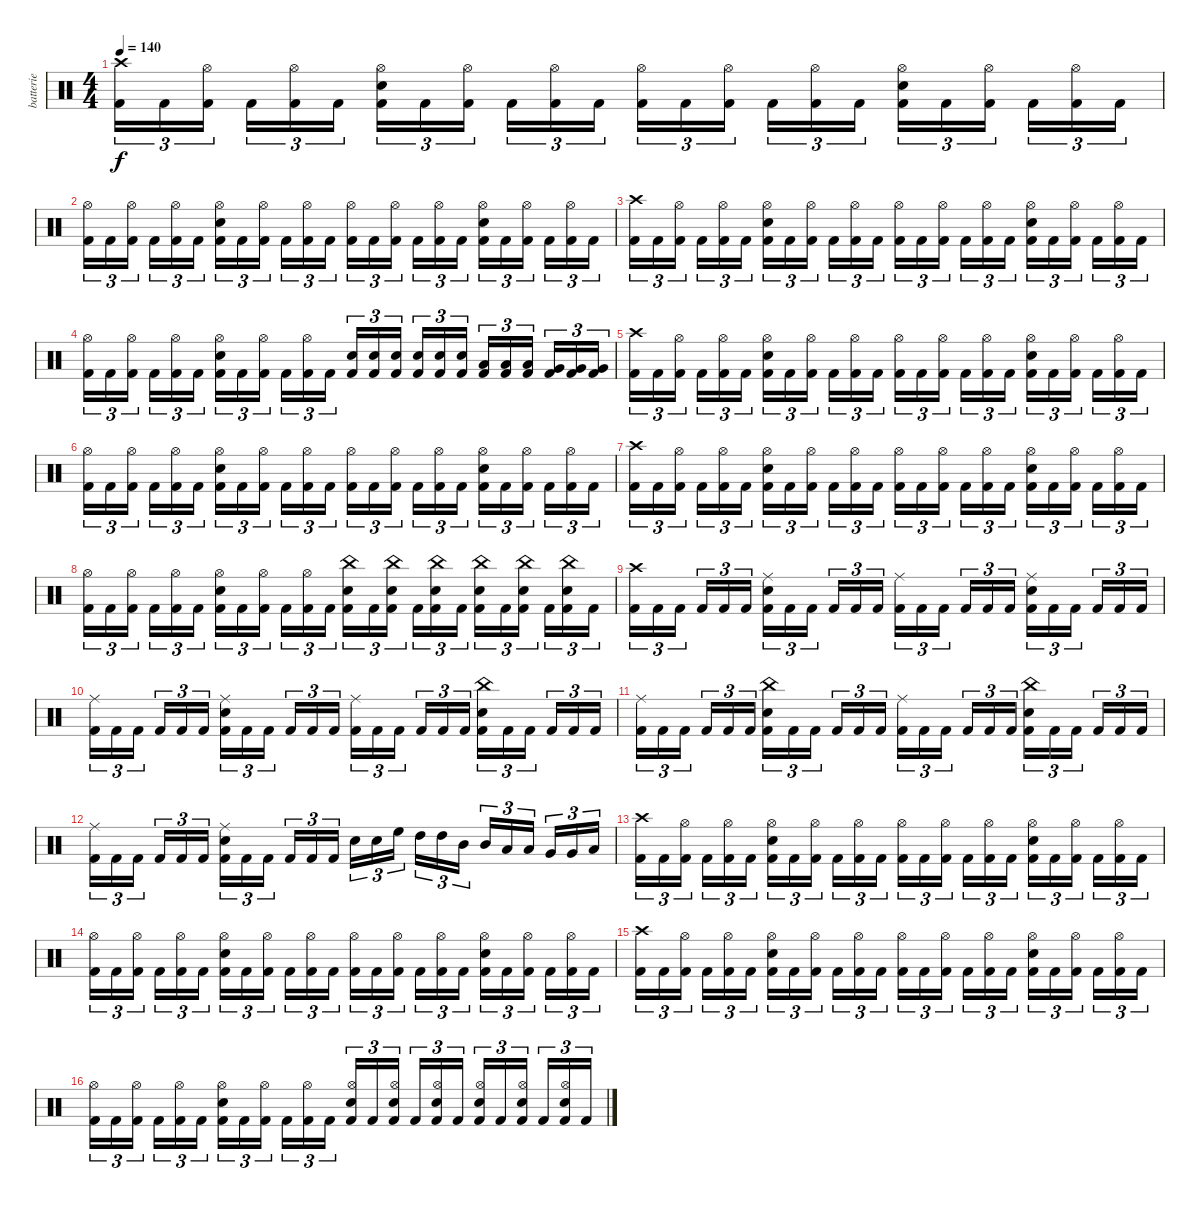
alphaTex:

\track ("batterie" "batterie") {instrument percussion}
\staff {score}
\articulation defaults
\ts (4 4)
\tempo 140
\clef neutral
\ks c
("Crash high (hit)" "Kick (hit) 2").16{tu (3 2) dy f} "Kick (hit) 2".16{tu (3 2)} ("Hi-Hat (open)" "Kick (hit) 2").16{tu (3 2)} "Kick (hit) 2".16{tu (3 2)} ("Hi-Hat (open)" "Kick (hit) 2").16{tu (3 2)} "Kick (hit) 2".16{tu (3 2)} ("Hi-Hat (open)" "Electric Snare (hit)" "Kick (hit) 2").16{tu (3 2)} "Kick (hit) 2".16{tu (3 2)} ("Hi-Hat (open)" "Kick (hit) 2").16{tu (3 2)} "Kick (hit) 2".16{tu (3 2)} ("Hi-Hat (open)" "Kick (hit) 2").16{tu (3 2)} "Kick (hit) 2".16{tu (3 2)} ("Hi-Hat (open)" "Kick (hit) 2").16{tu (3 2)} "Kick (hit) 2".16{tu (3 2)} ("Hi-Hat (open)" "Kick (hit) 2").16{tu (3 2)} "Kick (hit) 2".16{tu (3 2)} ("Hi-Hat (open)" "Kick (hit) 2").16{tu (3 2)} "Kick (hit) 2".16{tu (3 2)} ("Hi-Hat (open)" "Electric Snare (hit)" "Kick (hit) 2").16{tu (3 2)} "Kick (hit) 2".16{tu (3 2)} ("Hi-Hat (open)" "Kick (hit) 2").16{tu (3 2)} "Kick (hit) 2".16{tu (3 2)} ("Hi-Hat (open)" "Kick (hit) 2").16{tu (3 2)} "Kick (hit) 2".16{tu (3 2)} |
("Hi-Hat (open)" "Kick (hit) 2").16{tu (3 2)} "Kick (hit) 2".16{tu (3 2)} ("Hi-Hat (open)" "Kick (hit) 2").16{tu (3 2)} "Kick (hit) 2".16{tu (3 2)} ("Hi-Hat (open)" "Kick (hit) 2").16{tu (3 2)} "Kick (hit) 2".16{tu (3 2)} ("Hi-Hat (open)" "Electric Snare (hit)" "Kick (hit) 2").16{tu (3 2)} "Kick (hit) 2".16{tu (3 2)} ("Hi-Hat (open)" "Kick (hit) 2").16{tu (3 2)} "Kick (hit) 2".16{tu (3 2)} ("Hi-Hat (open)" "Kick (hit) 2").16{tu (3 2)} "Kick (hit) 2".16{tu (3 2)} ("Hi-Hat (open)" "Kick (hit) 2").16{tu (3 2)} "Kick (hit) 2".16{tu (3 2)} ("Hi-Hat (open)" "Kick (hit) 2").16{tu (3 2)} "Kick (hit) 2".16{tu (3 2)} ("Hi-Hat (open)" "Kick (hit) 2").16{tu (3 2)} "Kick (hit) 2".16{tu (3 2)} ("Hi-Hat (open)" "Electric Snare (hit)" "Kick (hit) 2").16{tu (3 2)} "Kick (hit) 2".16{tu (3 2)} ("Hi-Hat (open)" "Kick (hit) 2").16{tu (3 2)} "Kick (hit) 2".16{tu (3 2)} ("Hi-Hat (open)" "Kick (hit) 2").16{tu (3 2)} "Kick (hit) 2".16{tu (3 2)} |
("Crash high (hit)" "Kick (hit) 2").16{tu (3 2)} "Kick (hit) 2".16{tu (3 2)} ("Hi-Hat (open)" "Kick (hit) 2").16{tu (3 2)} "Kick (hit) 2".16{tu (3 2)} ("Hi-Hat (open)" "Kick (hit) 2").16{tu (3 2)} "Kick (hit) 2".16{tu (3 2)} ("Hi-Hat (open)" "Electric Snare (hit)" "Kick (hit) 2").16{tu (3 2)} "Kick (hit) 2".16{tu (3 2)} ("Hi-Hat (open)" "Kick (hit) 2").16{tu (3 2)} "Kick (hit) 2".16{tu (3 2)} ("Hi-Hat (open)" "Kick (hit) 2").16{tu (3 2)} "Kick (hit) 2".16{tu (3 2)} ("Hi-Hat (open)" "Kick (hit) 2").16{tu (3 2)} "Kick (hit) 2".16{tu (3 2)} ("Hi-Hat (open)" "Kick (hit) 2").16{tu (3 2)} "Kick (hit) 2".16{tu (3 2)} ("Hi-Hat (open)" "Kick (hit) 2").16{tu (3 2)} "Kick (hit) 2".16{tu (3 2)} ("Hi-Hat (open)" "Electric Snare (hit)" "Kick (hit) 2").16{tu (3 2)} "Kick (hit) 2".16{tu (3 2)} ("Hi-Hat (open)" "Kick (hit) 2").16{tu (3 2)} "Kick (hit) 2".16{tu (3 2)} ("Hi-Hat (open)" "Kick (hit) 2").16{tu (3 2)} "Kick (hit) 2".16{tu (3 2)} |
("Hi-Hat (open)" "Kick (hit) 2").16{tu (3 2)} "Kick (hit) 2".16{tu (3 2)} ("Hi-Hat (open)" "Kick (hit) 2").16{tu (3 2)} "Kick (hit) 2".16{tu (3 2)} ("Hi-Hat (open)" "Kick (hit) 2").16{tu (3 2)} "Kick (hit) 2".16{tu (3 2)} ("Hi-Hat (open)" "Electric Snare (hit)" "Kick (hit) 2").16{tu (3 2)} "Kick (hit) 2".16{tu (3 2)} ("Hi-Hat (open)" "Kick (hit) 2").16{tu (3 2)} "Kick (hit) 2".16{tu (3 2)} ("Hi-Hat (open)" "Kick (hit) 2").16{tu (3 2)} "Kick (hit) 2".16{tu (3 2)} ("Electric Snare (hit)" "Kick (hit) 2").16{tu (3 2)} ("Electric Snare (hit)" "Kick (hit) 2").16{tu (3 2)} ("Electric Snare (hit)" "Kick (hit) 2").16{tu (3 2)} ("Electric Snare (hit)" "Kick (hit) 2").16{tu (3 2)} ("Electric Snare (hit)" "Kick (hit) 2").16{tu (3 2)} ("Electric Snare (hit)" "Kick (hit) 2").16{tu (3 2)} ("Low Tom (hit)" "Kick (hit) 2").16{tu (3 2)} ("Low Tom (hit)" "Kick (hit) 2").16{tu (3 2)} ("Low Tom (hit)" "Kick (hit) 2").16{tu (3 2)} ("Very Low Tom (hit)" "Kick (hit) 2").16{tu (3 2)} ("Very Low Tom (hit)" "Kick (hit) 2").16{tu (3 2)} ("Very Low Tom (hit)" "Kick (hit) 2").16{tu (3 2)} |
("Crash high (hit)" "Kick (hit) 2").16{tu (3 2)} "Kick (hit) 2".16{tu (3 2)} ("Hi-Hat (open)" "Kick (hit) 2").16{tu (3 2)} "Kick (hit) 2".16{tu (3 2)} ("Hi-Hat (open)" "Kick (hit) 2").16{tu (3 2)} "Kick (hit) 2".16{tu (3 2)} ("Hi-Hat (open)" "Electric Snare (hit)" "Kick (hit) 2").16{tu (3 2)} "Kick (hit) 2".16{tu (3 2)} ("Hi-Hat (open)" "Kick (hit) 2").16{tu (3 2)} "Kick (hit) 2".16{tu (3 2)} ("Hi-Hat (open)" "Kick (hit) 2").16{tu (3 2)} "Kick (hit) 2".16{tu (3 2)} ("Hi-Hat (open)" "Kick (hit) 2").16{tu (3 2)} "Kick (hit) 2".16{tu (3 2)} ("Hi-Hat (open)" "Kick (hit) 2").16{tu (3 2)} "Kick (hit) 2".16{tu (3 2)} ("Hi-Hat (open)" "Kick (hit) 2").16{tu (3 2)} "Kick (hit) 2".16{tu (3 2)} ("Hi-Hat (open)" "Electric Snare (hit)" "Kick (hit) 2").16{tu (3 2)} "Kick (hit) 2".16{tu (3 2)} ("Hi-Hat (open)" "Kick (hit) 2").16{tu (3 2)} "Kick (hit) 2".16{tu (3 2)} ("Hi-Hat (open)" "Kick (hit) 2").16{tu (3 2)} "Kick (hit) 2".16{tu (3 2)} |
("Hi-Hat (open)" "Kick (hit) 2").16{tu (3 2)} "Kick (hit) 2".16{tu (3 2)} ("Hi-Hat (open)" "Kick (hit) 2").16{tu (3 2)} "Kick (hit) 2".16{tu (3 2)} ("Hi-Hat (open)" "Kick (hit) 2").16{tu (3 2)} "Kick (hit) 2".16{tu (3 2)} ("Hi-Hat (open)" "Electric Snare (hit)" "Kick (hit) 2").16{tu (3 2)} "Kick (hit) 2".16{tu (3 2)} ("Hi-Hat (open)" "Kick (hit) 2").16{tu (3 2)} "Kick (hit) 2".16{tu (3 2)} ("Hi-Hat (open)" "Kick (hit) 2").16{tu (3 2)} "Kick (hit) 2".16{tu (3 2)} ("Hi-Hat (open)" "Kick (hit) 2").16{tu (3 2)} "Kick (hit) 2".16{tu (3 2)} ("Hi-Hat (open)" "Kick (hit) 2").16{tu (3 2)} "Kick (hit) 2".16{tu (3 2)} ("Hi-Hat (open)" "Kick (hit) 2").16{tu (3 2)} "Kick (hit) 2".16{tu (3 2)} ("Hi-Hat (open)" "Electric Snare (hit)" "Kick (hit) 2").16{tu (3 2)} "Kick (hit) 2".16{tu (3 2)} ("Hi-Hat (open)" "Kick (hit) 2").16{tu (3 2)} "Kick (hit) 2".16{tu (3 2)} ("Hi-Hat (open)" "Kick (hit) 2").16{tu (3 2)} "Kick (hit) 2".16{tu (3 2)} |
("Crash high (hit)" "Kick (hit) 2").16{tu (3 2)} "Kick (hit) 2".16{tu (3 2)} ("Hi-Hat (open)" "Kick (hit) 2").16{tu (3 2)} "Kick (hit) 2".16{tu (3 2)} ("Hi-Hat (open)" "Kick (hit) 2").16{tu (3 2)} "Kick (hit) 2".16{tu (3 2)} ("Hi-Hat (open)" "Electric Snare (hit)" "Kick (hit) 2").16{tu (3 2)} "Kick (hit) 2".16{tu (3 2)} ("Hi-Hat (open)" "Kick (hit) 2").16{tu (3 2)} "Kick (hit) 2".16{tu (3 2)} ("Hi-Hat (open)" "Kick (hit) 2").16{tu (3 2)} "Kick (hit) 2".16{tu (3 2)} ("Hi-Hat (open)" "Kick (hit) 2").16{tu (3 2)} "Kick (hit) 2".16{tu (3 2)} ("Hi-Hat (open)" "Kick (hit) 2").16{tu (3 2)} "Kick (hit) 2".16{tu (3 2)} ("Hi-Hat (open)" "Kick (hit) 2").16{tu (3 2)} "Kick (hit) 2".16{tu (3 2)} ("Hi-Hat (open)" "Electric Snare (hit)" "Kick (hit) 2").16{tu (3 2)} "Kick (hit) 2".16{tu (3 2)} ("Hi-Hat (open)" "Kick (hit) 2").16{tu (3 2)} "Kick (hit) 2".16{tu (3 2)} ("Hi-Hat (open)" "Kick (hit) 2").16{tu (3 2)} "Kick (hit) 2".16{tu (3 2)} |
("Hi-Hat (open)" "Kick (hit) 2").16{tu (3 2)} "Kick (hit) 2".16{tu (3 2)} ("Hi-Hat (open)" "Kick (hit) 2").16{tu (3 2)} "Kick (hit) 2".16{tu (3 2)} ("Hi-Hat (open)" "Kick (hit) 2").16{tu (3 2)} "Kick (hit) 2".16{tu (3 2)} ("Hi-Hat (open)" "Electric Snare (hit)" "Kick (hit) 2").16{tu (3 2)} "Kick (hit) 2".16{tu (3 2)} ("Hi-Hat (open)" "Kick (hit) 2").16{tu (3 2)} "Kick (hit) 2".16{tu (3 2)} ("Hi-Hat (open)" "Kick (hit) 2").16{tu (3 2)} "Kick (hit) 2".16{tu (3 2)} ("China (hit)" "Electric Snare (hit)" "Kick (hit) 2").16{tu (3 2)} "Kick (hit) 2".16{tu (3 2)} ("China (hit)" "Electric Snare (hit)" "Kick (hit) 2").16{tu (3 2)} "Kick (hit) 2".16{tu (3 2)} ("China (hit)" "Electric Snare (hit)" "Kick (hit) 2").16{tu (3 2)} "Kick (hit) 2".16{tu (3 2)} ("China (hit)" "Electric Snare (hit)" "Kick (hit) 2").16{tu (3 2)} "Kick (hit) 2".16{tu (3 2)} ("China (hit)" "Electric Snare (hit)" "Kick (hit) 2").16{tu (3 2)} "Kick (hit) 2".16{tu (3 2)} ("China (hit)" "Electric Snare (hit)" "Kick (hit) 2").16{tu (3 2)} "Kick (hit) 2".16{tu (3 2)} |
("Crash high (hit)" "Kick (hit) 2").16{tu (3 2)} "Kick (hit) 2".16{tu (3 2)} "Kick (hit) 2".16{tu (3 2)} "Kick (hit) 2".16{tu (3 2)} "Kick (hit) 2".16{tu (3 2)} "Kick (hit) 2".16{tu (3 2)} ("Ride (middle)" "Electric Snare (hit)" "Kick (hit) 2").16{tu (3 2)} "Kick (hit) 2".16{tu (3 2)} "Kick (hit) 2".16{tu (3 2)} "Kick (hit) 2".16{tu (3 2)} "Kick (hit) 2".16{tu (3 2)} "Kick (hit) 2".16{tu (3 2)} ("Ride (middle)" "Kick (hit) 2").16{tu (3 2)} "Kick (hit) 2".16{tu (3 2)} "Kick (hit) 2".16{tu (3 2)} "Kick (hit) 2".16{tu (3 2)} "Kick (hit) 2".16{tu (3 2)} "Kick (hit) 2".16{tu (3 2)} ("Ride (middle)" "Electric Snare (hit)" "Kick (hit) 2").16{tu (3 2)} "Kick (hit) 2".16{tu (3 2)} "Kick (hit) 2".16{tu (3 2)} "Kick (hit) 2".16{tu (3 2)} "Kick (hit) 2".16{tu (3 2)} "Kick (hit) 2".16{tu (3 2)} |
("Ride (middle)" "Kick (hit) 2").16{tu (3 2)} "Kick (hit) 2".16{tu (3 2)} "Kick (hit) 2".16{tu (3 2)} "Kick (hit) 2".16{tu (3 2)} "Kick (hit) 2".16{tu (3 2)} "Kick (hit) 2".16{tu (3 2)} ("Ride (middle)" "Electric Snare (hit)" "Kick (hit) 2").16{tu (3 2)} "Kick (hit) 2".16{tu (3 2)} "Kick (hit) 2".16{tu (3 2)} "Kick (hit) 2".16{tu (3 2)} "Kick (hit) 2".16{tu (3 2)} "Kick (hit) 2".16{tu (3 2)} ("Ride (middle)" "Kick (hit) 2").16{tu (3 2)} "Kick (hit) 2".16{tu (3 2)} "Kick (hit) 2".16{tu (3 2)} "Kick (hit) 2".16{tu (3 2)} "Kick (hit) 2".16{tu (3 2)} "Kick (hit) 2".16{tu (3 2)} ("China (hit)" "Electric Snare (hit)" "Kick (hit) 2").16{tu (3 2)} "Kick (hit) 2".16{tu (3 2)} "Kick (hit) 2".16{tu (3 2)} "Kick (hit) 2".16{tu (3 2)} "Kick (hit) 2".16{tu (3 2)} "Kick (hit) 2".16{tu (3 2)} |
("Ride (middle)" "Kick (hit) 2").16{tu (3 2)} "Kick (hit) 2".16{tu (3 2)} "Kick (hit) 2".16{tu (3 2)} "Kick (hit) 2".16{tu (3 2)} "Kick (hit) 2".16{tu (3 2)} "Kick (hit) 2".16{tu (3 2)} ("China (hit)" "Electric Snare (hit)" "Kick (hit) 2").16{tu (3 2)} "Kick (hit) 2".16{tu (3 2)} "Kick (hit) 2".16{tu (3 2)} "Kick (hit) 2".16{tu (3 2)} "Kick (hit) 2".16{tu (3 2)} "Kick (hit) 2".16{tu (3 2)} ("Ride (middle)" "Kick (hit) 2").16{tu (3 2)} "Kick (hit) 2".16{tu (3 2)} "Kick (hit) 2".16{tu (3 2)} "Kick (hit) 2".16{tu (3 2)} "Kick (hit) 2".16{tu (3 2)} "Kick (hit) 2".16{tu (3 2)} ("China (hit)" "Electric Snare (hit)" "Kick (hit) 2").16{tu (3 2)} "Kick (hit) 2".16{tu (3 2)} "Kick (hit) 2".16{tu (3 2)} "Kick (hit) 2".16{tu (3 2)} "Kick (hit) 2".16{tu (3 2)} "Kick (hit) 2".16{tu (3 2)} |
("Ride (middle)" "Kick (hit) 2").16{tu (3 2)} "Kick (hit) 2".16{tu (3 2)} "Kick (hit) 2".16{tu (3 2)} "Kick (hit) 2".16{tu (3 2)} "Kick (hit) 2".16{tu (3 2)} "Kick (hit) 2".16{tu (3 2)} ("Ride (middle)" "Electric Snare (hit)" "Kick (hit) 2").16{tu (3 2)} "Kick (hit) 2".16{tu (3 2)} "Kick (hit) 2".16{tu (3 2)} "Kick (hit) 2".16{tu (3 2)} "Kick (hit) 2".16{tu (3 2)} "Kick (hit) 2".16{tu (3 2)} "Electric Snare (hit)".16{tu (3 2)} "Electric Snare (hit)".16{tu (3 2)} "High Floor Tom (hit)".16{tu (3 2)} "High Tom (hit)".16{tu (3 2)} "High Tom (hit)".16{tu (3 2)} "Mid Tom (hit)".16{tu (3 2)} "Mid Tom (hit)".16{tu (3 2)} "Low Tom (hit)".16{tu (3 2)} "Low Tom (hit)".16{tu (3 2)} "Very Low Tom (hit)".16{tu (3 2)} "Very Low Tom (hit)".16{tu (3 2)} "Low Floor Tom (hit)".16{tu (3 2)} |
("Crash high (hit)" "Kick (hit) 2").16{tu (3 2)} "Kick (hit) 2".16{tu (3 2)} ("Hi-Hat (open)" "Kick (hit) 2").16{tu (3 2)} "Kick (hit) 2".16{tu (3 2)} ("Hi-Hat (open)" "Kick (hit) 2").16{tu (3 2)} "Kick (hit) 2".16{tu (3 2)} ("Hi-Hat (open)" "Electric Snare (hit)" "Kick (hit) 2").16{tu (3 2)} "Kick (hit) 2".16{tu (3 2)} ("Hi-Hat (open)" "Kick (hit) 2").16{tu (3 2)} "Kick (hit) 2".16{tu (3 2)} ("Hi-Hat (open)" "Kick (hit) 2").16{tu (3 2)} "Kick (hit) 2".16{tu (3 2)} ("Hi-Hat (open)" "Kick (hit) 2").16{tu (3 2)} "Kick (hit) 2".16{tu (3 2)} ("Hi-Hat (open)" "Kick (hit) 2").16{tu (3 2)} "Kick (hit) 2".16{tu (3 2)} ("Hi-Hat (open)" "Kick (hit) 2").16{tu (3 2)} "Kick (hit) 2".16{tu (3 2)} ("Hi-Hat (open)" "Electric Snare (hit)" "Kick (hit) 2").16{tu (3 2)} "Kick (hit) 2".16{tu (3 2)} ("Hi-Hat (open)" "Kick (hit) 2").16{tu (3 2)} "Kick (hit) 2".16{tu (3 2)} ("Hi-Hat (open)" "Kick (hit) 2").16{tu (3 2)} "Kick (hit) 2".16{tu (3 2)} |
("Hi-Hat (open)" "Kick (hit) 2").16{tu (3 2)} "Kick (hit) 2".16{tu (3 2)} ("Hi-Hat (open)" "Kick (hit) 2").16{tu (3 2)} "Kick (hit) 2".16{tu (3 2)} ("Hi-Hat (open)" "Kick (hit) 2").16{tu (3 2)} "Kick (hit) 2".16{tu (3 2)} ("Hi-Hat (open)" "Electric Snare (hit)" "Kick (hit) 2").16{tu (3 2)} "Kick (hit) 2".16{tu (3 2)} ("Hi-Hat (open)" "Kick (hit) 2").16{tu (3 2)} "Kick (hit) 2".16{tu (3 2)} ("Hi-Hat (open)" "Kick (hit) 2").16{tu (3 2)} "Kick (hit) 2".16{tu (3 2)} ("Hi-Hat (open)" "Kick (hit) 2").16{tu (3 2)} "Kick (hit) 2".16{tu (3 2)} ("Hi-Hat (open)" "Kick (hit) 2").16{tu (3 2)} "Kick (hit) 2".16{tu (3 2)} ("Hi-Hat (open)" "Kick (hit) 2").16{tu (3 2)} "Kick (hit) 2".16{tu (3 2)} ("Hi-Hat (open)" "Electric Snare (hit)" "Kick (hit) 2").16{tu (3 2)} "Kick (hit) 2".16{tu (3 2)} ("Hi-Hat (open)" "Kick (hit) 2").16{tu (3 2)} "Kick (hit) 2".16{tu (3 2)} ("Hi-Hat (open)" "Kick (hit) 2").16{tu (3 2)} "Kick (hit) 2".16{tu (3 2)} |
("Crash high (hit)" "Kick (hit) 2").16{tu (3 2)} "Kick (hit) 2".16{tu (3 2)} ("Hi-Hat (open)" "Kick (hit) 2").16{tu (3 2)} "Kick (hit) 2".16{tu (3 2)} ("Hi-Hat (open)" "Kick (hit) 2").16{tu (3 2)} "Kick (hit) 2".16{tu (3 2)} ("Hi-Hat (open)" "Electric Snare (hit)" "Kick (hit) 2").16{tu (3 2)} "Kick (hit) 2".16{tu (3 2)} ("Hi-Hat (open)" "Kick (hit) 2").16{tu (3 2)} "Kick (hit) 2".16{tu (3 2)} ("Hi-Hat (open)" "Kick (hit) 2").16{tu (3 2)} "Kick (hit) 2".16{tu (3 2)} ("Hi-Hat (open)" "Kick (hit) 2").16{tu (3 2)} "Kick (hit) 2".16{tu (3 2)} ("Hi-Hat (open)" "Kick (hit) 2").16{tu (3 2)} "Kick (hit) 2".16{tu (3 2)} ("Hi-Hat (open)" "Kick (hit) 2").16{tu (3 2)} "Kick (hit) 2".16{tu (3 2)} ("Hi-Hat (open)" "Electric Snare (hit)" "Kick (hit) 2").16{tu (3 2)} "Kick (hit) 2".16{tu (3 2)} ("Hi-Hat (open)" "Kick (hit) 2").16{tu (3 2)} "Kick (hit) 2".16{tu (3 2)} ("Hi-Hat (open)" "Kick (hit) 2").16{tu (3 2)} "Kick (hit) 2".16{tu (3 2)} |
("Hi-Hat (open)" "Kick (hit) 2").16{tu (3 2)} "Kick (hit) 2".16{tu (3 2)} ("Hi-Hat (open)" "Kick (hit) 2").16{tu (3 2)} "Kick (hit) 2".16{tu (3 2)} ("Hi-Hat (open)" "Kick (hit) 2").16{tu (3 2)} "Kick (hit) 2".16{tu (3 2)} ("Hi-Hat (open)" "Electric Snare (hit)" "Kick (hit) 2").16{tu (3 2)} "Kick (hit) 2".16{tu (3 2)} ("Hi-Hat (open)" "Kick (hit) 2").16{tu (3 2)} "Kick (hit) 2".16{tu (3 2)} ("Hi-Hat (open)" "Kick (hit) 2").16{tu (3 2)} "Kick (hit) 2".16{tu (3 2)} ("Hi-Hat (open)" "Electric Snare (hit)" "Kick (hit) 2").16{tu (3 2)} "Kick (hit) 2".16{tu (3 2)} ("Hi-Hat (open)" "Electric Snare (hit)" "Kick (hit) 2").16{tu (3 2)} "Kick (hit) 2".16{tu (3 2)} ("Hi-Hat (open)" "Electric Snare (hit)" "Kick (hit) 2").16{tu (3 2)} "Kick (hit) 2".16{tu (3 2)} ("Hi-Hat (open)" "Electric Snare (hit)" "Kick (hit) 2").16{tu (3 2)} "Kick (hit) 2".16{tu (3 2)} ("Hi-Hat (open)" "Electric Snare (hit)" "Kick (hit) 2").16{tu (3 2)} "Kick (hit) 2".16{tu (3 2)} ("Hi-Hat (open)" "Electric Snare (hit)" "Kick (hit) 2").16{tu (3 2)} "Kick (hit) 2".16{tu (3 2)}
